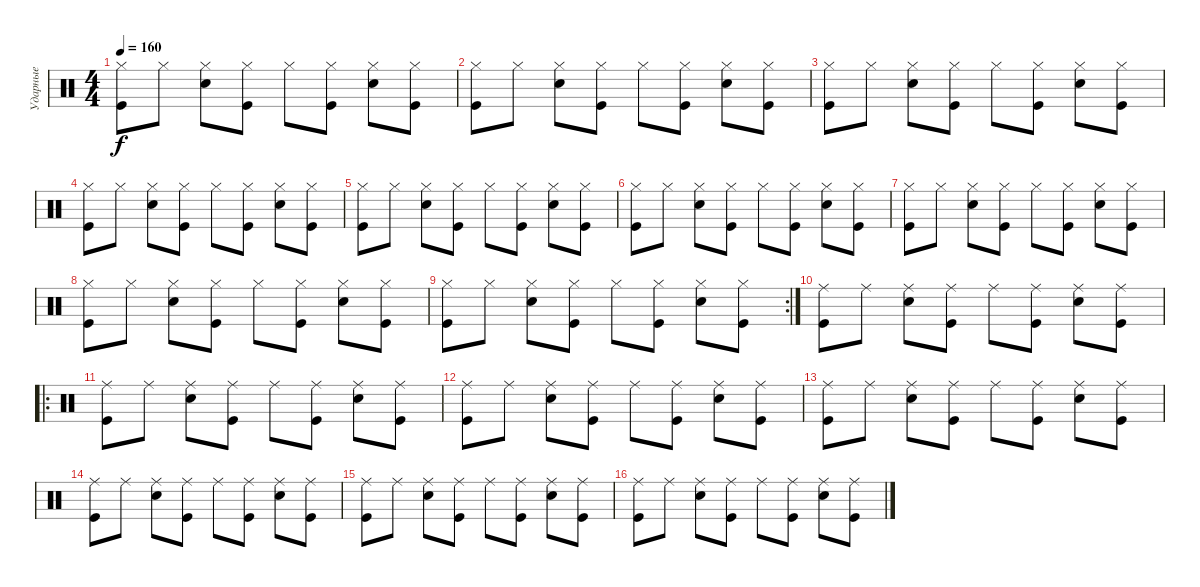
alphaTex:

\track ("Ударные" "Ударные") {instrument percussion}
\staff {score}
\articulation defaults
\ts (4 4)
\tempo 160
\clef neutral
\ks aminor
("Kick (hit)" "Hi-Hat (closed)").8{dy f} "Hi-Hat (closed)".8 ("Snare (hit) 2" "Hi-Hat (closed)").8 ("Kick (hit)" "Hi-Hat (closed)").8 "Hi-Hat (closed)".8 ("Kick (hit)" "Hi-Hat (closed)").8 ("Snare (hit) 2" "Hi-Hat (closed)").8 ("Kick (hit)" "Hi-Hat (closed)").8 |
("Hi-Hat (closed)" "Kick (hit)").8 "Hi-Hat (closed)".8 ("Hi-Hat (closed)" "Snare (hit) 2").8 ("Hi-Hat (closed)" "Kick (hit)").8 "Hi-Hat (closed)".8 ("Hi-Hat (closed)" "Kick (hit)").8 ("Hi-Hat (closed)" "Snare (hit) 2").8 ("Hi-Hat (closed)" "Kick (hit)").8 |
("Hi-Hat (closed)" "Kick (hit)").8 "Hi-Hat (closed)".8 ("Hi-Hat (closed)" "Snare (hit) 2").8 ("Hi-Hat (closed)" "Kick (hit)").8 "Hi-Hat (closed)".8 ("Hi-Hat (closed)" "Kick (hit)").8 ("Hi-Hat (closed)" "Snare (hit) 2").8 ("Hi-Hat (closed)" "Kick (hit)").8 |
("Hi-Hat (closed)" "Kick (hit)").8 "Hi-Hat (closed)".8 ("Hi-Hat (closed)" "Snare (hit) 2").8 ("Hi-Hat (closed)" "Kick (hit)").8 "Hi-Hat (closed)".8 ("Hi-Hat (closed)" "Kick (hit)").8 ("Hi-Hat (closed)" "Snare (hit) 2").8 ("Hi-Hat (closed)" "Kick (hit)").8 |
("Hi-Hat (closed)" "Kick (hit)").8 "Hi-Hat (closed)".8 ("Hi-Hat (closed)" "Snare (hit) 2").8 ("Hi-Hat (closed)" "Kick (hit)").8 "Hi-Hat (closed)".8 ("Hi-Hat (closed)" "Kick (hit)").8 ("Hi-Hat (closed)" "Snare (hit) 2").8 ("Hi-Hat (closed)" "Kick (hit)").8 |
("Hi-Hat (closed)" "Kick (hit)").8 "Hi-Hat (closed)".8 ("Hi-Hat (closed)" "Snare (hit) 2").8 ("Hi-Hat (closed)" "Kick (hit)").8 "Hi-Hat (closed)".8 ("Hi-Hat (closed)" "Kick (hit)").8 ("Hi-Hat (closed)" "Snare (hit) 2").8 ("Hi-Hat (closed)" "Kick (hit)").8 |
("Hi-Hat (closed)" "Kick (hit)").8 "Hi-Hat (closed)".8 ("Hi-Hat (closed)" "Snare (hit) 2").8 ("Hi-Hat (closed)" "Kick (hit)").8 "Hi-Hat (closed)".8 ("Hi-Hat (closed)" "Kick (hit)").8 ("Hi-Hat (closed)" "Snare (hit) 2").8 ("Hi-Hat (closed)" "Kick (hit)").8 |
("Hi-Hat (closed)" "Kick (hit)").8 "Hi-Hat (closed)".8 ("Hi-Hat (closed)" "Snare (hit) 2").8 ("Hi-Hat (closed)" "Kick (hit)").8 "Hi-Hat (closed)".8 ("Hi-Hat (closed)" "Kick (hit)").8 ("Hi-Hat (closed)" "Snare (hit) 2").8 ("Hi-Hat (closed)" "Kick (hit)").8 |
\rc 2
("Hi-Hat (closed)" "Kick (hit)").8 "Hi-Hat (closed)".8 ("Hi-Hat (closed)" "Snare (hit) 2").8 ("Hi-Hat (closed)" "Kick (hit)").8 "Hi-Hat (closed)".8 ("Hi-Hat (closed)" "Kick (hit)").8 ("Hi-Hat (closed)" "Snare (hit) 2").8 ("Hi-Hat (closed)" "Kick (hit)").8 |
("Ride (middle)" "Kick (hit)").8 "Ride (middle)".8 ("Ride (middle)" "Snare (hit) 2").8 ("Ride (middle)" "Kick (hit)").8 "Ride (middle)".8 ("Ride (middle)" "Kick (hit)").8 ("Ride (middle)" "Snare (hit) 2").8 ("Ride (middle)" "Kick (hit)").8 |
\ro
("Ride (middle)" "Kick (hit)").8 "Ride (middle)".8 ("Ride (middle)" "Snare (hit) 2").8 ("Ride (middle)" "Kick (hit)").8 "Ride (middle)".8 ("Ride (middle)" "Kick (hit)").8 ("Ride (middle)" "Snare (hit) 2").8 ("Ride (middle)" "Kick (hit)").8 |
("Ride (middle)" "Kick (hit)").8 "Ride (middle)".8 ("Ride (middle)" "Snare (hit) 2").8 ("Ride (middle)" "Kick (hit)").8 "Ride (middle)".8 ("Ride (middle)" "Kick (hit)").8 ("Ride (middle)" "Snare (hit) 2").8 ("Ride (middle)" "Kick (hit)").8 |
("Ride (middle)" "Kick (hit)").8 "Ride (middle)".8 ("Ride (middle)" "Snare (hit) 2").8 ("Ride (middle)" "Kick (hit)").8 "Ride (middle)".8 ("Ride (middle)" "Kick (hit)").8 ("Ride (middle)" "Snare (hit) 2").8 ("Ride (middle)" "Kick (hit)").8 |
("Ride (middle)" "Kick (hit)").8 "Ride (middle)".8 ("Ride (middle)" "Snare (hit) 2").8 ("Ride (middle)" "Kick (hit)").8 "Ride (middle)".8 ("Ride (middle)" "Kick (hit)").8 ("Ride (middle)" "Snare (hit) 2").8 ("Ride (middle)" "Kick (hit)").8 |
("Ride (middle)" "Kick (hit)").8 "Ride (middle)".8 ("Ride (middle)" "Snare (hit) 2").8 ("Ride (middle)" "Kick (hit)").8 "Ride (middle)".8 ("Ride (middle)" "Kick (hit)").8 ("Ride (middle)" "Snare (hit) 2").8 ("Ride (middle)" "Kick (hit)").8 |
("Ride (middle)" "Kick (hit)").8 "Ride (middle)".8 ("Ride (middle)" "Snare (hit) 2").8 ("Ride (middle)" "Kick (hit)").8 "Ride (middle)".8 ("Ride (middle)" "Kick (hit)").8 ("Ride (middle)" "Snare (hit) 2").8 ("Ride (middle)" "Kick (hit)").8
